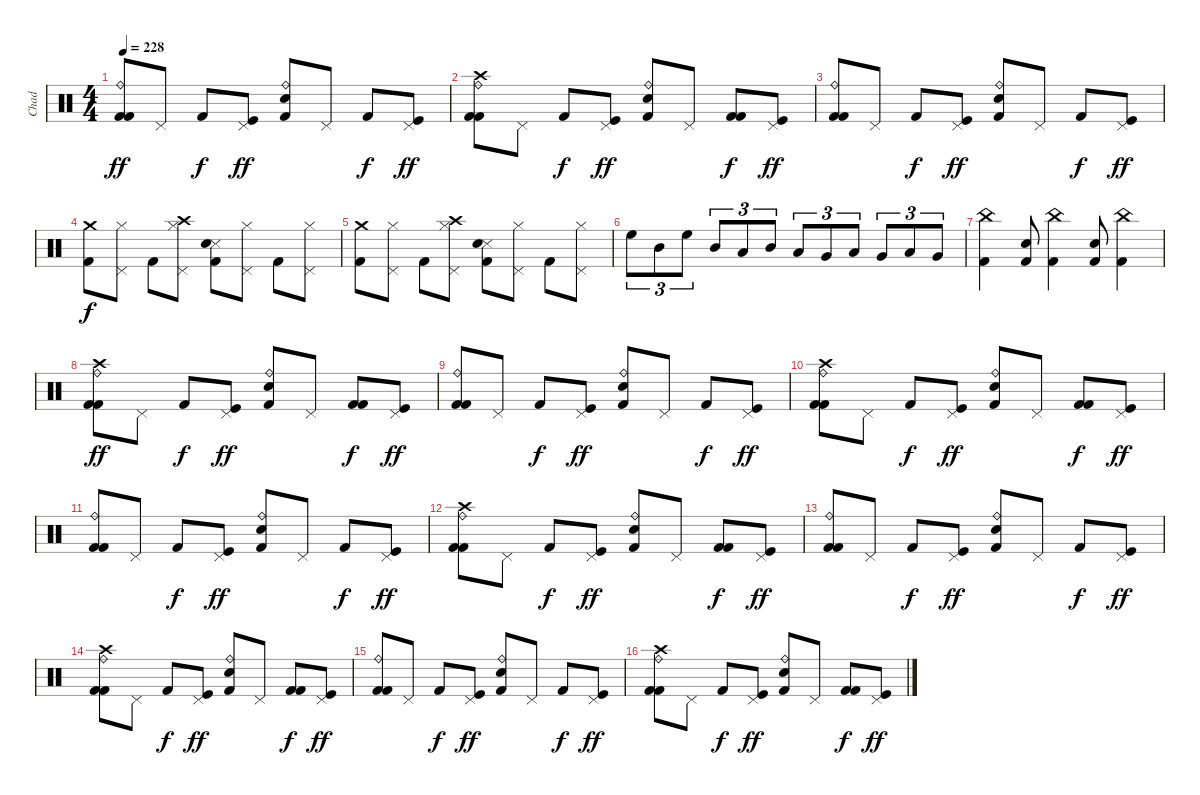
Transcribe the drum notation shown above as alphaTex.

\track ("Chad" "Chad") {instrument percussion}
\staff {score}
\articulation defaults
\ts (4 4)
\tempo 228
\clef neutral
\ks c
("Ride (bell)" "Kick (hit) 2" "Kick (hit) 2").8{dy ff} "Pedal Hi-Hat (hit)".8 "Kick (hit) 2".8{dy f} ("Kick (hit)" "Pedal Hi-Hat (hit)").8{dy ff} ("Ride (bell)" "Electric Snare (hit)" "Kick (hit) 2").8 "Pedal Hi-Hat (hit)".8 "Kick (hit) 2".8{dy f} ("Kick (hit)" "Pedal Hi-Hat (hit)").8{dy ff} |
("Crash high (hit)" "Ride (bell)" "Kick (hit) 2" "Kick (hit) 2").8 "Pedal Hi-Hat (hit)".8 "Kick (hit) 2".8{dy f} ("Kick (hit)" "Pedal Hi-Hat (hit)").8{dy ff} ("Ride (bell)" "Electric Snare (hit)" "Kick (hit) 2").8 "Pedal Hi-Hat (hit)".8 ("Kick (hit) 2" "Kick (hit) 2").8{dy f} ("Kick (hit)" "Pedal Hi-Hat (hit)").8{dy ff} |
("Ride (bell)" "Kick (hit) 2" "Kick (hit) 2").8 "Pedal Hi-Hat (hit)".8 "Kick (hit) 2".8{dy f} ("Kick (hit)" "Pedal Hi-Hat (hit)").8{dy ff} ("Ride (bell)" "Electric Snare (hit)" "Kick (hit) 2").8 "Pedal Hi-Hat (hit)".8 "Kick (hit) 2".8{dy f} ("Kick (hit)" "Pedal Hi-Hat (hit)").8{dy ff} |
("Crash medium (hit)" "Kick (hit) 2").8{dy f} ("Hi-Hat (closed)" "Pedal Hi-Hat (hit)").8 "Kick (hit) 2".8 ("Crash high (hit)" "Hi-Hat (closed)" "Pedal Hi-Hat (hit)").8 ("Snare (side stick) 3" "Electric Snare (hit)" "Kick (hit) 2").8 ("Hi-Hat (closed)" "Pedal Hi-Hat (hit)").8 "Kick (hit) 2".8 ("Hi-Hat (closed)" "Pedal Hi-Hat (hit)").8 |
("Crash medium (hit)" "Kick (hit) 2").8 ("Hi-Hat (closed)" "Pedal Hi-Hat (hit)").8 "Kick (hit) 2".8 ("Crash high (hit)" "Hi-Hat (closed)" "Pedal Hi-Hat (hit)").8 ("Snare (side stick) 3" "Electric Snare (hit)" "Kick (hit) 2").8 ("Hi-Hat (closed)" "Pedal Hi-Hat (hit)").8 "Kick (hit) 2".8 ("Hi-Hat (closed)" "Pedal Hi-Hat (hit)").8 |
"High Floor Tom (hit)".8{tu (3 2)} "Mid Tom (hit)".8{tu (3 2)} "High Floor Tom (hit)".8{tu (3 2)} "Mid Tom (hit)".8{tu (3 2)} "Low Tom (hit)".8{tu (3 2)} "Mid Tom (hit)".8{tu (3 2)} "Low Tom (hit)".8{tu (3 2)} "Very Low Tom (hit)".8{tu (3 2)} "Low Tom (hit)".8{tu (3 2)} "Very Low Tom (hit)".8{tu (3 2)} "Low Floor Tom (hit)".8{tu (3 2)} "Very Low Tom (hit)".8{tu (3 2)} |
("China (hit)" "Kick (hit) 2").4 ("Electric Snare (hit)" "Kick (hit) 2").8 ("China (hit)" "Kick (hit) 2").4 ("Electric Snare (hit)" "Kick (hit) 2").8 ("China (hit)" "Kick (hit) 2").4 |
("Crash high (hit)" "Ride (bell)" "Kick (hit) 2" "Kick (hit) 2").8{dy ff} "Pedal Hi-Hat (hit)".8 "Kick (hit) 2".8{dy f} ("Kick (hit)" "Pedal Hi-Hat (hit)").8{dy ff} ("Ride (bell)" "Electric Snare (hit)" "Kick (hit) 2").8 "Pedal Hi-Hat (hit)".8 ("Kick (hit) 2" "Kick (hit) 2").8{dy f} ("Kick (hit)" "Pedal Hi-Hat (hit)").8{dy ff} |
("Ride (bell)" "Kick (hit) 2" "Kick (hit) 2").8 "Pedal Hi-Hat (hit)".8 "Kick (hit) 2".8{dy f} ("Kick (hit)" "Pedal Hi-Hat (hit)").8{dy ff} ("Ride (bell)" "Electric Snare (hit)" "Kick (hit) 2").8 "Pedal Hi-Hat (hit)".8 "Kick (hit) 2".8{dy f} ("Kick (hit)" "Pedal Hi-Hat (hit)").8{dy ff} |
("Crash high (hit)" "Ride (bell)" "Kick (hit) 2" "Kick (hit) 2").8 "Pedal Hi-Hat (hit)".8 "Kick (hit) 2".8{dy f} ("Kick (hit)" "Pedal Hi-Hat (hit)").8{dy ff} ("Ride (bell)" "Electric Snare (hit)" "Kick (hit) 2").8 "Pedal Hi-Hat (hit)".8 ("Kick (hit) 2" "Kick (hit) 2").8{dy f} ("Kick (hit)" "Pedal Hi-Hat (hit)").8{dy ff} |
("Ride (bell)" "Kick (hit) 2" "Kick (hit) 2").8 "Pedal Hi-Hat (hit)".8 "Kick (hit) 2".8{dy f} ("Kick (hit)" "Pedal Hi-Hat (hit)").8{dy ff} ("Ride (bell)" "Electric Snare (hit)" "Kick (hit) 2").8 "Pedal Hi-Hat (hit)".8 "Kick (hit) 2".8{dy f} ("Kick (hit)" "Pedal Hi-Hat (hit)").8{dy ff} |
("Crash high (hit)" "Ride (bell)" "Kick (hit) 2" "Kick (hit) 2").8 "Pedal Hi-Hat (hit)".8 "Kick (hit) 2".8{dy f} ("Kick (hit)" "Pedal Hi-Hat (hit)").8{dy ff} ("Ride (bell)" "Electric Snare (hit)" "Kick (hit) 2").8 "Pedal Hi-Hat (hit)".8 ("Kick (hit) 2" "Kick (hit) 2").8{dy f} ("Kick (hit)" "Pedal Hi-Hat (hit)").8{dy ff} |
("Ride (bell)" "Kick (hit) 2" "Kick (hit) 2").8 "Pedal Hi-Hat (hit)".8 "Kick (hit) 2".8{dy f} ("Kick (hit)" "Pedal Hi-Hat (hit)").8{dy ff} ("Ride (bell)" "Electric Snare (hit)" "Kick (hit) 2").8 "Pedal Hi-Hat (hit)".8 "Kick (hit) 2".8{dy f} ("Kick (hit)" "Pedal Hi-Hat (hit)").8{dy ff} |
("Crash high (hit)" "Ride (bell)" "Kick (hit) 2" "Kick (hit) 2").8 "Pedal Hi-Hat (hit)".8 "Kick (hit) 2".8{dy f} ("Kick (hit)" "Pedal Hi-Hat (hit)").8{dy ff} ("Ride (bell)" "Electric Snare (hit)" "Kick (hit) 2").8 "Pedal Hi-Hat (hit)".8 ("Kick (hit) 2" "Kick (hit) 2").8{dy f} ("Kick (hit)" "Pedal Hi-Hat (hit)").8{dy ff} |
("Ride (bell)" "Kick (hit) 2" "Kick (hit) 2").8 "Pedal Hi-Hat (hit)".8 "Kick (hit) 2".8{dy f} ("Kick (hit)" "Pedal Hi-Hat (hit)").8{dy ff} ("Ride (bell)" "Electric Snare (hit)" "Kick (hit) 2").8 "Pedal Hi-Hat (hit)".8 "Kick (hit) 2".8{dy f} ("Kick (hit)" "Pedal Hi-Hat (hit)").8{dy ff} |
("Crash high (hit)" "Ride (bell)" "Kick (hit) 2" "Kick (hit) 2").8 "Pedal Hi-Hat (hit)".8 "Kick (hit) 2".8{dy f} ("Kick (hit)" "Pedal Hi-Hat (hit)").8{dy ff} ("Ride (bell)" "Electric Snare (hit)" "Kick (hit) 2").8 "Pedal Hi-Hat (hit)".8 ("Kick (hit) 2" "Kick (hit) 2").8{dy f} ("Kick (hit)" "Pedal Hi-Hat (hit)").8{dy ff}
